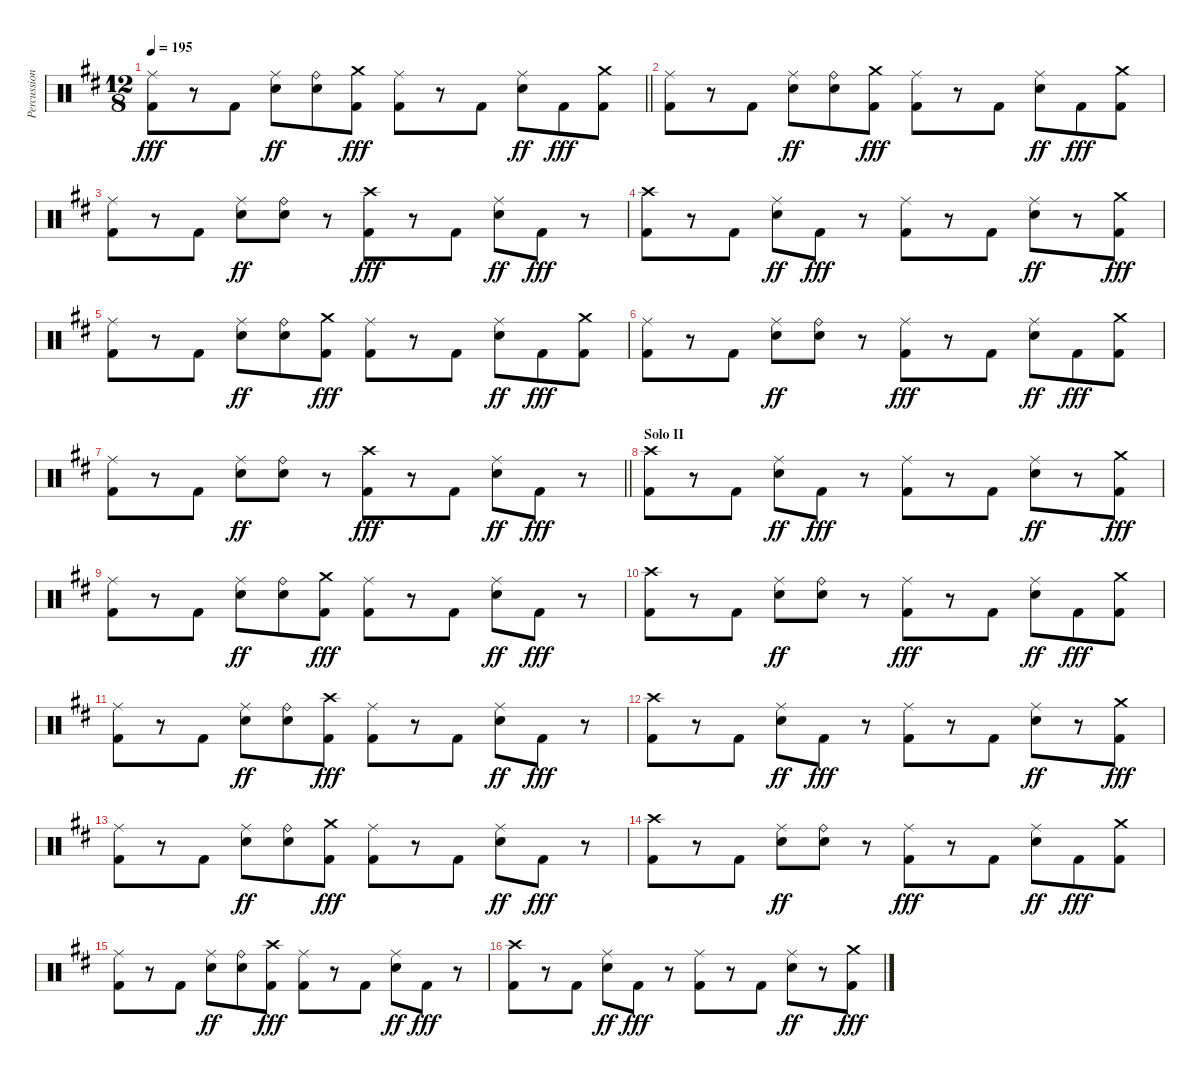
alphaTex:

\track ("Percussion" "Percussion") {instrument percussion}
\staff {score}
\articulation defaults
\ts (12 8)
\tempo 195
\clef neutral
\barLineRight lightlight
\ks d
("Ride (middle)" "Kick (hit) 2").8{dy fff} r.8 "Kick (hit) 2".8 ("Ride (middle)" "Snare (hit) 2").8{dy ff} ("Ride (bell)" "Snare (hit) 2").8 ("Crash medium (hit)" "Kick (hit) 2").8{dy fff} ("Ride (middle)" "Kick (hit) 2").8 r.8 "Kick (hit) 2".8 ("Ride (middle)" "Snare (hit) 2").8{dy ff} "Kick (hit) 2".8{dy fff} ("Crash medium (hit)" "Kick (hit) 2").8 |
("Ride (middle)" "Kick (hit) 2").8 r.8 "Kick (hit) 2".8 ("Ride (middle)" "Snare (hit) 2").8{dy ff} ("Ride (bell)" "Snare (hit) 2").8 ("Crash medium (hit)" "Kick (hit) 2").8{dy fff} ("Ride (middle)" "Kick (hit) 2").8 r.8 "Kick (hit) 2".8 ("Ride (middle)" "Snare (hit) 2").8{dy ff} "Kick (hit) 2".8{dy fff} ("Crash medium (hit)" "Kick (hit) 2").8 |
("Ride (middle)" "Kick (hit) 2").8 r.8 "Kick (hit) 2".8 ("Ride (middle)" "Snare (hit) 2").8{dy ff} ("Ride (bell)" "Snare (hit) 2").8 r.8 ("Crash high (hit)" "Kick (hit) 2").8{dy fff} r.8 "Kick (hit) 2".8 ("Ride (middle)" "Snare (hit) 2").8{dy ff} "Kick (hit) 2".8{dy fff} r.8 |
("Crash high (hit)" "Kick (hit) 2").8 r.8 "Kick (hit) 2".8 ("Ride (middle)" "Snare (hit) 2").8{dy ff} "Kick (hit) 2".8{dy fff} r.8 ("Ride (middle)" "Kick (hit) 2").8 r.8 "Kick (hit) 2".8 ("Ride (middle)" "Snare (hit) 2").8{dy ff} r.8 ("Crash medium (hit)" "Kick (hit) 2").8{dy fff} |
("Ride (middle)" "Kick (hit) 2").8 r.8 "Kick (hit) 2".8 ("Ride (middle)" "Snare (hit) 2").8{dy ff} ("Ride (bell)" "Snare (hit) 2").8 ("Crash medium (hit)" "Kick (hit) 2").8{dy fff} ("Ride (middle)" "Kick (hit) 2").8 r.8 "Kick (hit) 2".8 ("Ride (middle)" "Snare (hit) 2").8{dy ff} "Kick (hit) 2".8{dy fff} ("Crash medium (hit)" "Kick (hit) 2").8 |
("Ride (middle)" "Kick (hit) 2").8 r.8 "Kick (hit) 2".8 ("Ride (middle)" "Snare (hit) 2").8{dy ff} ("Ride (bell)" "Snare (hit) 2").8 r.8 ("Ride (middle)" "Kick (hit) 2").8{dy fff} r.8 "Kick (hit) 2".8 ("Ride (middle)" "Snare (hit) 2").8{dy ff} "Kick (hit) 2".8{dy fff} ("Crash medium (hit)" "Kick (hit) 2").8 |
\barLineRight lightlight
("Ride (middle)" "Kick (hit) 2").8 r.8 "Kick (hit) 2".8 ("Ride (middle)" "Snare (hit) 2").8{dy ff} ("Ride (bell)" "Snare (hit) 2").8 r.8 ("Crash high (hit)" "Kick (hit) 2").8{dy fff} r.8 "Kick (hit) 2".8 ("Ride (middle)" "Snare (hit) 2").8{dy ff} "Kick (hit) 2".8{dy fff} r.8 |
\section ("" "Solo II")
("Crash high (hit)" "Kick (hit) 2").8 r.8 "Kick (hit) 2".8 ("Ride (middle)" "Snare (hit) 2").8{dy ff} "Kick (hit) 2".8{dy fff} r.8 ("Ride (middle)" "Kick (hit) 2").8 r.8 "Kick (hit) 2".8 ("Ride (middle)" "Snare (hit) 2").8{dy ff} r.8 ("Crash medium (hit)" "Kick (hit) 2").8{dy fff} |
("Ride (middle)" "Kick (hit) 2").8 r.8 "Kick (hit) 2".8 ("Ride (middle)" "Snare (hit) 2").8{dy ff} ("Ride (bell)" "Snare (hit) 2").8 ("Crash medium (hit)" "Kick (hit) 2").8{dy fff} ("Ride (middle)" "Kick (hit) 2").8 r.8 "Kick (hit) 2".8 ("Ride (middle)" "Snare (hit) 2").8{dy ff} "Kick (hit) 2".8{dy fff} r.8 |
("Crash high (hit)" "Kick (hit) 2").8 r.8 "Kick (hit) 2".8 ("Ride (middle)" "Snare (hit) 2").8{dy ff} ("Ride (bell)" "Snare (hit) 2").8 r.8 ("Ride (middle)" "Kick (hit) 2").8{dy fff} r.8 "Kick (hit) 2".8 ("Ride (middle)" "Snare (hit) 2").8{dy ff} "Kick (hit) 2".8{dy fff} ("Crash medium (hit)" "Kick (hit) 2").8 |
("Ride (middle)" "Kick (hit) 2").8 r.8 "Kick (hit) 2".8 ("Ride (middle)" "Snare (hit) 2").8{dy ff} ("Ride (bell)" "Snare (hit) 2").8 ("Crash high (hit)" "Kick (hit) 2").8{dy fff} ("Ride (middle)" "Kick (hit) 2").8 r.8 "Kick (hit) 2".8 ("Ride (middle)" "Snare (hit) 2").8{dy ff} "Kick (hit) 2".8{dy fff} r.8 |
("Crash high (hit)" "Kick (hit) 2").8 r.8 "Kick (hit) 2".8 ("Ride (middle)" "Snare (hit) 2").8{dy ff} "Kick (hit) 2".8{dy fff} r.8 ("Ride (middle)" "Kick (hit) 2").8 r.8 "Kick (hit) 2".8 ("Ride (middle)" "Snare (hit) 2").8{dy ff} r.8 ("Crash medium (hit)" "Kick (hit) 2").8{dy fff} |
("Ride (middle)" "Kick (hit) 2").8 r.8 "Kick (hit) 2".8 ("Ride (middle)" "Snare (hit) 2").8{dy ff} ("Ride (bell)" "Snare (hit) 2").8 ("Crash medium (hit)" "Kick (hit) 2").8{dy fff} ("Ride (middle)" "Kick (hit) 2").8 r.8 "Kick (hit) 2".8 ("Ride (middle)" "Snare (hit) 2").8{dy ff} "Kick (hit) 2".8{dy fff} r.8 |
("Crash high (hit)" "Kick (hit) 2").8 r.8 "Kick (hit) 2".8 ("Ride (middle)" "Snare (hit) 2").8{dy ff} ("Ride (bell)" "Snare (hit) 2").8 r.8 ("Ride (middle)" "Kick (hit) 2").8{dy fff} r.8 "Kick (hit) 2".8 ("Ride (middle)" "Snare (hit) 2").8{dy ff} "Kick (hit) 2".8{dy fff} ("Crash medium (hit)" "Kick (hit) 2").8 |
("Ride (middle)" "Kick (hit) 2").8 r.8 "Kick (hit) 2".8 ("Ride (middle)" "Snare (hit) 2").8{dy ff} ("Ride (bell)" "Snare (hit) 2").8 ("Crash high (hit)" "Kick (hit) 2").8{dy fff} ("Ride (middle)" "Kick (hit) 2").8 r.8 "Kick (hit) 2".8 ("Ride (middle)" "Snare (hit) 2").8{dy ff} "Kick (hit) 2".8{dy fff} r.8 |
("Crash high (hit)" "Kick (hit) 2").8 r.8 "Kick (hit) 2".8 ("Ride (middle)" "Snare (hit) 2").8{dy ff} "Kick (hit) 2".8{dy fff} r.8 ("Ride (middle)" "Kick (hit) 2").8 r.8 "Kick (hit) 2".8 ("Ride (middle)" "Snare (hit) 2").8{dy ff} r.8 ("Crash medium (hit)" "Kick (hit) 2").8{dy fff}
